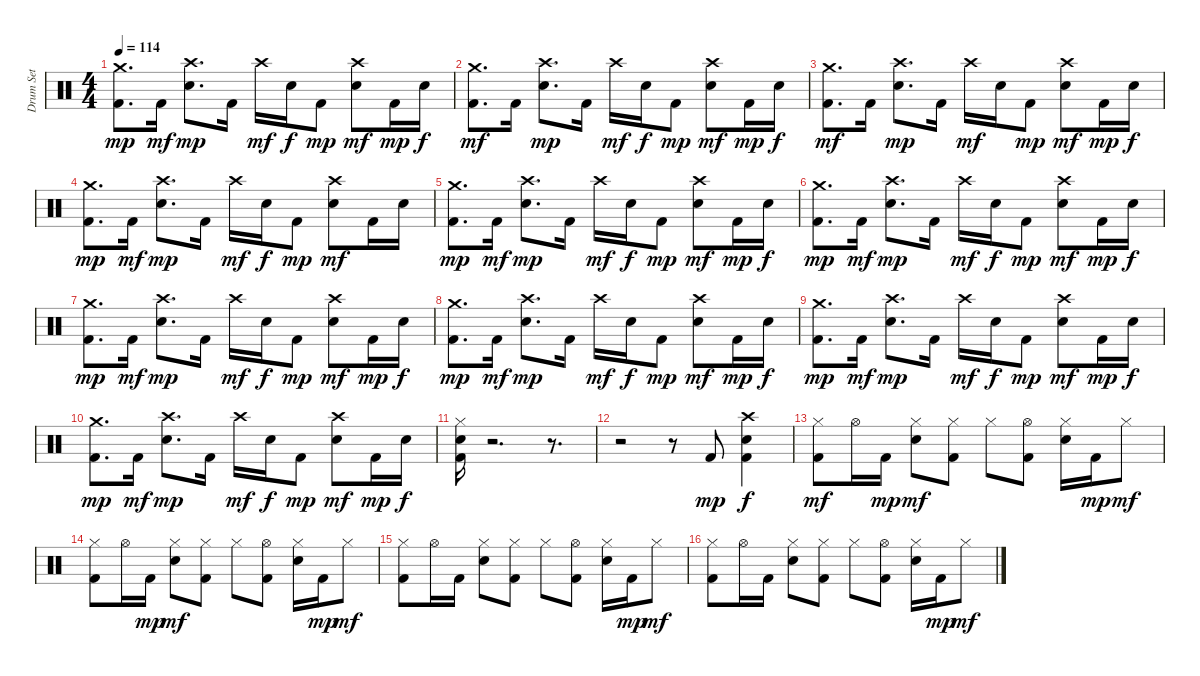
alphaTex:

\track ("Drum Set" "Drum Set") {instrument percussion}
\staff {score}
\articulation defaults
\ts (4 4)
\tempo 114
\clef neutral
\ks c
("Kick (hit) 2" "Crash medium (hit)").8{d dy mp} "Kick (hit) 2".16{dy mf} ("Snare (hit) 2" "Crash high (hit)").8{d dy mp} "Kick (hit) 2".16 "Crash high (hit)".16{dy mf} "Snare (hit) 2".16{dy f} "Kick (hit) 2".8{dy mp} ("Snare (hit) 2" "Crash high (hit)").8{dy mf} "Kick (hit) 2".16{dy mp} "Snare (hit) 2".16{dy f} |
("Kick (hit) 2" "Crash medium (hit)").8{d dy mf} "Kick (hit) 2".16 ("Snare (hit) 2" "Crash high (hit)").8{d dy mp} "Kick (hit) 2".16 "Crash high (hit)".16{dy mf} "Snare (hit) 2".16{dy f} "Kick (hit) 2".8{dy mp} ("Snare (hit) 2" "Crash high (hit)").8{dy mf} "Kick (hit) 2".16{dy mp} "Snare (hit) 2".16{dy f} |
("Kick (hit) 2" "Crash medium (hit)").8{d dy mf} "Kick (hit) 2".16 ("Snare (hit) 2" "Crash high (hit)").8{d dy mp} "Kick (hit) 2".16 "Crash high (hit)".16{dy mf} "Snare (hit) 2".16 "Kick (hit) 2".8{dy mp} ("Snare (hit) 2" "Crash high (hit)").8{dy mf} "Kick (hit) 2".16{dy mp} "Snare (hit) 2".16{dy f} |
("Kick (hit) 2" "Crash medium (hit)").8{d dy mp} "Kick (hit) 2".16{dy mf} ("Snare (hit) 2" "Crash high (hit)").8{d dy mp} "Kick (hit) 2".16 "Crash high (hit)".16{dy mf} "Snare (hit) 2".16{dy f} "Kick (hit) 2".8{dy mp} ("Snare (hit) 2" "Crash high (hit)").8{dy mf} "Kick (hit) 2".16 "Snare (hit) 2".16 |
("Kick (hit) 2" "Crash medium (hit)").8{d dy mp} "Kick (hit) 2".16{dy mf} ("Snare (hit) 2" "Crash high (hit)").8{d dy mp} "Kick (hit) 2".16 "Crash high (hit)".16{dy mf} "Snare (hit) 2".16{dy f} "Kick (hit) 2".8{dy mp} ("Snare (hit) 2" "Crash high (hit)").8{dy mf} "Kick (hit) 2".16{dy mp} "Snare (hit) 2".16{dy f} |
("Kick (hit) 2" "Crash medium (hit)").8{d dy mp} "Kick (hit) 2".16{dy mf} ("Snare (hit) 2" "Crash high (hit)").8{d dy mp} "Kick (hit) 2".16 "Crash high (hit)".16{dy mf} "Snare (hit) 2".16{dy f} "Kick (hit) 2".8{dy mp} ("Snare (hit) 2" "Crash high (hit)").8{dy mf} "Kick (hit) 2".16{dy mp} "Snare (hit) 2".16{dy f} |
("Kick (hit) 2" "Crash medium (hit)").8{d dy mp} "Kick (hit) 2".16{dy mf} ("Snare (hit) 2" "Crash high (hit)").8{d dy mp} "Kick (hit) 2".16 "Crash high (hit)".16{dy mf} "Snare (hit) 2".16{dy f} "Kick (hit) 2".8{dy mp} ("Snare (hit) 2" "Crash high (hit)").8{dy mf} "Kick (hit) 2".16{dy mp} "Snare (hit) 2".16{dy f} |
("Kick (hit) 2" "Crash medium (hit)").8{d dy mp} "Kick (hit) 2".16{dy mf} ("Snare (hit) 2" "Crash high (hit)").8{d dy mp} "Kick (hit) 2".16 "Crash high (hit)".16{dy mf} "Snare (hit) 2".16{dy f} "Kick (hit) 2".8{dy mp} ("Snare (hit) 2" "Crash high (hit)").8{dy mf} "Kick (hit) 2".16{dy mp} "Snare (hit) 2".16{dy f} |
("Kick (hit) 2" "Crash medium (hit)").8{d dy mp} "Kick (hit) 2".16{dy mf} ("Snare (hit) 2" "Crash high (hit)").8{d dy mp} "Kick (hit) 2".16 "Crash high (hit)".16{dy mf} "Snare (hit) 2".16{dy f} "Kick (hit) 2".8{dy mp} ("Snare (hit) 2" "Crash high (hit)").8{dy mf} "Kick (hit) 2".16{dy mp} "Snare (hit) 2".16{dy f} |
("Kick (hit) 2" "Crash medium (hit)").8{d dy mp} "Kick (hit) 2".16{dy mf} ("Snare (hit) 2" "Crash high (hit)").8{d dy mp} "Kick (hit) 2".16 "Crash high (hit)".16{dy mf} "Snare (hit) 2".16{dy f} "Kick (hit) 2".8{dy mp} ("Snare (hit) 2" "Crash high (hit)").8{dy mf} "Kick (hit) 2".16{dy mp} "Snare (hit) 2".16{dy f} |
("Kick (hit) 2" "Snare (hit) 2" "Hi-Hat (closed)").16 r.2{d} r.8{d} |
r.2 r.8 "Kick (hit) 2".8{dy mp} ("Kick (hit) 2" "Snare (hit) 2" "Crash high (hit)").4{dy f} |
("Kick (hit) 2" "Hi-Hat (closed)").8{dy mf} "Hi-Hat (open)".16 "Kick (hit) 2".16{dy mp} ("Snare (hit) 2" "Hi-Hat (closed)").8{dy mf} ("Kick (hit) 2" "Hi-Hat (closed)").8 "Hi-Hat (closed)".8 ("Kick (hit) 2" "Hi-Hat (open)").8 ("Snare (hit) 2" "Hi-Hat (closed)").16 "Kick (hit) 2".16{dy mp} "Hi-Hat (closed)".8{dy mf} |
("Kick (hit) 2" "Hi-Hat (closed)").8 "Hi-Hat (open)".16 "Kick (hit) 2".16{dy mp} ("Snare (hit) 2" "Hi-Hat (closed)").8{dy mf} ("Kick (hit) 2" "Hi-Hat (closed)").8 "Hi-Hat (closed)".8 ("Kick (hit) 2" "Hi-Hat (open)").8 ("Snare (hit) 2" "Hi-Hat (closed)").16 "Kick (hit) 2".16{dy mp} "Hi-Hat (closed)".8{dy mf} |
("Kick (hit) 2" "Hi-Hat (closed)").8 "Hi-Hat (open)".16 "Kick (hit) 2".16 ("Snare (hit) 2" "Hi-Hat (closed)").8 ("Kick (hit) 2" "Hi-Hat (closed)").8 "Hi-Hat (closed)".8 ("Kick (hit) 2" "Hi-Hat (open)").8 ("Snare (hit) 2" "Hi-Hat (closed)").16 "Kick (hit) 2".16{dy mp} "Hi-Hat (closed)".8{dy mf} |
("Kick (hit) 2" "Hi-Hat (closed)").8 "Hi-Hat (open)".16 "Kick (hit) 2".16 ("Snare (hit) 2" "Hi-Hat (closed)").8 ("Kick (hit) 2" "Hi-Hat (closed)").8 "Hi-Hat (closed)".8 ("Kick (hit) 2" "Hi-Hat (open)").8 ("Snare (hit) 2" "Hi-Hat (closed)").16 "Kick (hit) 2".16{dy mp} "Hi-Hat (closed)".8{dy mf}
